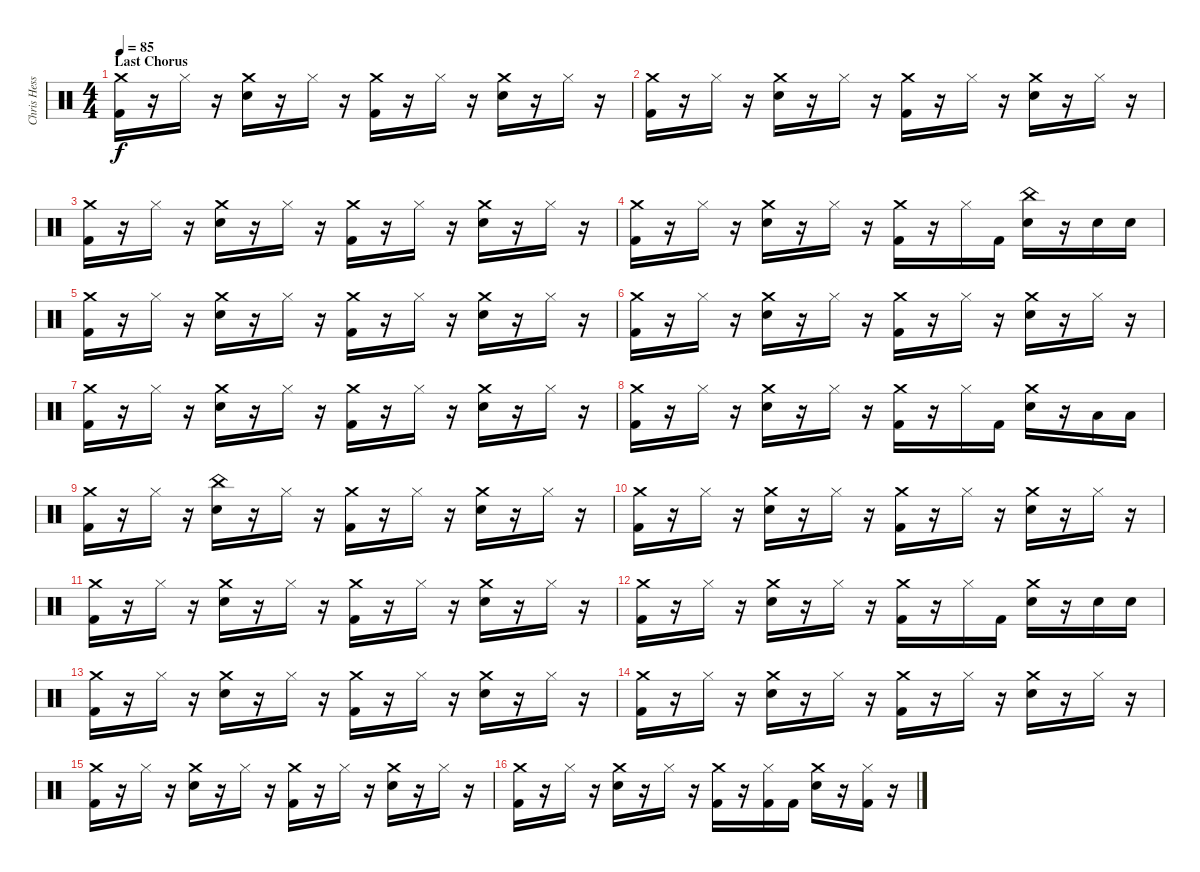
\track ("Chris Hesse - Drums" "Chris Hess") {instrument percussion}
\staff {score}
\articulation defaults
\ts (4 4)
\section ("" "Last Chorus")
\tempo 85
\clef neutral
\ks c
("Crash medium (hit)" "Kick (hit) 2").16{dy f} r.16 "Hi-Hat (closed)".16 r.16 ("Crash medium (hit)" "Snare (hit) 2").16 r.16 "Hi-Hat (closed)".16 r.16 ("Crash medium (hit)" "Kick (hit) 2").16 r.16 "Hi-Hat (closed)".16 r.16 ("Crash medium (hit)" "Snare (hit) 2").16 r.16 "Hi-Hat (closed)".16 r.16 |
("Crash medium (hit)" "Kick (hit) 2").16 r.16 "Hi-Hat (closed)".16 r.16 ("Crash medium (hit)" "Snare (hit) 2").16 r.16 "Hi-Hat (closed)".16 r.16 ("Crash medium (hit)" "Kick (hit) 2").16 r.16 "Hi-Hat (closed)".16 r.16 ("Crash medium (hit)" "Snare (hit) 2").16 r.16 "Hi-Hat (closed)".16 r.16 |
("Crash medium (hit)" "Kick (hit) 2").16 r.16 "Hi-Hat (closed)".16 r.16 ("Crash medium (hit)" "Snare (hit) 2").16 r.16 "Hi-Hat (closed)".16 r.16 ("Crash medium (hit)" "Kick (hit) 2").16 r.16 "Hi-Hat (closed)".16 r.16 ("Crash medium (hit)" "Snare (hit) 2").16 r.16 "Hi-Hat (closed)".16 r.16 |
("Crash medium (hit)" "Kick (hit) 2").16 r.16 "Hi-Hat (closed)".16 r.16 ("Crash medium (hit)" "Snare (hit) 2").16 r.16 "Hi-Hat (closed)".16 r.16 ("Crash medium (hit)" "Kick (hit) 2").16 r.16 "Hi-Hat (closed)".16 "Kick (hit) 2".16 ("China (hit)" "Snare (hit) 2").16 r.16 "Snare (hit) 2".16 "Snare (hit) 2".16 |
("Crash medium (hit)" "Kick (hit) 2").16 r.16 "Hi-Hat (closed)".16 r.16 ("Crash medium (hit)" "Snare (hit) 2").16 r.16 "Hi-Hat (closed)".16 r.16 ("Crash medium (hit)" "Kick (hit) 2").16 r.16 "Hi-Hat (closed)".16 r.16 ("Crash medium (hit)" "Snare (hit) 2").16 r.16 "Hi-Hat (closed)".16 r.16 |
("Crash medium (hit)" "Kick (hit) 2").16 r.16 "Hi-Hat (closed)".16 r.16 ("Crash medium (hit)" "Snare (hit) 2").16 r.16 "Hi-Hat (closed)".16 r.16 ("Crash medium (hit)" "Kick (hit) 2").16 r.16 "Hi-Hat (closed)".16 r.16 ("Crash medium (hit)" "Snare (hit) 2").16 r.16 "Hi-Hat (closed)".16 r.16 |
("Crash medium (hit)" "Kick (hit) 2").16 r.16 "Hi-Hat (closed)".16 r.16 ("Crash medium (hit)" "Snare (hit) 2").16 r.16 "Hi-Hat (closed)".16 r.16 ("Crash medium (hit)" "Kick (hit) 2").16 r.16 "Hi-Hat (closed)".16 r.16 ("Crash medium (hit)" "Snare (hit) 2").16 r.16 "Hi-Hat (closed)".16 r.16 |
("Crash medium (hit)" "Kick (hit) 2").16 r.16 "Hi-Hat (closed)".16 r.16 ("Crash medium (hit)" "Snare (hit) 2").16 r.16 "Hi-Hat (closed)".16 r.16 ("Crash medium (hit)" "Kick (hit) 2").16 r.16 "Hi-Hat (closed)".16 "Kick (hit) 2".16 ("Crash medium (hit)" "Snare (hit) 2").16 r.16 "Low Floor Tom (hit)".16 "Low Floor Tom (hit)".16 |
("Crash medium (hit)" "Kick (hit) 2").16 r.16 "Hi-Hat (closed)".16 r.16 ("China (hit)" "Snare (hit) 2").16 r.16 "Hi-Hat (closed)".16 r.16 ("Crash medium (hit)" "Kick (hit) 2").16 r.16 "Hi-Hat (closed)".16 r.16 ("Crash medium (hit)" "Snare (hit) 2").16 r.16 "Hi-Hat (closed)".16 r.16 |
("Crash medium (hit)" "Kick (hit) 2").16 r.16 "Hi-Hat (closed)".16 r.16 ("Crash medium (hit)" "Snare (hit) 2").16 r.16 "Hi-Hat (closed)".16 r.16 ("Crash medium (hit)" "Kick (hit) 2").16 r.16 "Hi-Hat (closed)".16 r.16 ("Crash medium (hit)" "Snare (hit) 2").16 r.16 "Hi-Hat (closed)".16 r.16 |
("Crash medium (hit)" "Kick (hit) 2").16 r.16 "Hi-Hat (closed)".16 r.16 ("Crash medium (hit)" "Snare (hit) 2").16 r.16 "Hi-Hat (closed)".16 r.16 ("Crash medium (hit)" "Kick (hit) 2").16 r.16 "Hi-Hat (closed)".16 r.16 ("Crash medium (hit)" "Snare (hit) 2").16 r.16 "Hi-Hat (closed)".16 r.16 |
("Crash medium (hit)" "Kick (hit) 2").16 r.16 "Hi-Hat (closed)".16 r.16 ("Crash medium (hit)" "Snare (hit) 2").16 r.16 "Hi-Hat (closed)".16 r.16 ("Crash medium (hit)" "Kick (hit) 2").16 r.16 "Hi-Hat (closed)".16 "Kick (hit) 2".16 ("Crash medium (hit)" "Snare (hit) 2").16 r.16 "Snare (hit) 2".16 "Snare (hit) 2".16 |
("Crash medium (hit)" "Kick (hit) 2").16 r.16 "Hi-Hat (closed)".16 r.16 ("Crash medium (hit)" "Snare (hit) 2").16 r.16 "Hi-Hat (closed)".16 r.16 ("Crash medium (hit)" "Kick (hit) 2").16 r.16 "Hi-Hat (closed)".16 r.16 ("Crash medium (hit)" "Snare (hit) 2").16 r.16 "Hi-Hat (closed)".16 r.16 |
("Crash medium (hit)" "Kick (hit) 2").16 r.16 "Hi-Hat (closed)".16 r.16 ("Crash medium (hit)" "Snare (hit) 2").16 r.16 "Hi-Hat (closed)".16 r.16 ("Crash medium (hit)" "Kick (hit) 2").16 r.16 "Hi-Hat (closed)".16 r.16 ("Crash medium (hit)" "Snare (hit) 2").16 r.16 "Hi-Hat (closed)".16 r.16 |
("Crash medium (hit)" "Kick (hit) 2").16 r.16 "Hi-Hat (closed)".16 r.16 ("Crash medium (hit)" "Snare (hit) 2").16 r.16 "Hi-Hat (closed)".16 r.16 ("Crash medium (hit)" "Kick (hit) 2").16 r.16 "Hi-Hat (closed)".16 r.16 ("Crash medium (hit)" "Snare (hit) 2").16 r.16 "Hi-Hat (closed)".16 r.16 |
("Crash medium (hit)" "Kick (hit) 2").16 r.16 "Hi-Hat (closed)".16 r.16 ("Crash medium (hit)" "Snare (hit) 2").16 r.16 "Hi-Hat (closed)".16 r.16 ("Crash medium (hit)" "Kick (hit) 2").16 r.16 ("Hi-Hat (closed)" "Kick (hit) 2").16 "Kick (hit) 2".16 ("Crash medium (hit)" "Snare (hit) 2").16 r.16 ("Hi-Hat (closed)" "Kick (hit) 2").16 r.16
